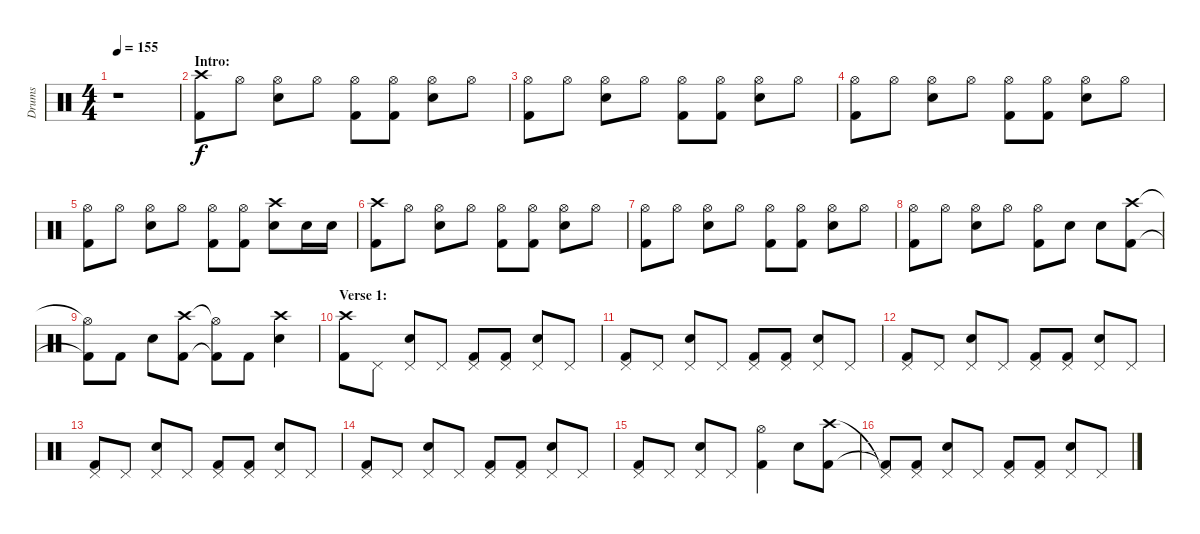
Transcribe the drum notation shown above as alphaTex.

\track ("Drums" "Drums") {instrument percussion}
\staff {score}
\articulation defaults
\ts (4 4)
\tempo 155
\clef neutral
\ks c
r.1{dy f} |
\section ("" "Intro:")
("Crash high (hit)" "Kick (hit) 2").8 "Hi-Hat (open)".8 ("Hi-Hat (open)" "Electric Snare (hit)").8 "Hi-Hat (open)".8 ("Hi-Hat (open)" "Kick (hit) 2").8 ("Hi-Hat (open)" "Kick (hit) 2").8 ("Hi-Hat (open)" "Electric Snare (hit)").8 "Hi-Hat (open)".8 |
("Hi-Hat (open)" "Kick (hit) 2").8 "Hi-Hat (open)".8 ("Hi-Hat (open)" "Electric Snare (hit)").8 "Hi-Hat (open)".8 ("Hi-Hat (open)" "Kick (hit) 2").8 ("Hi-Hat (open)" "Kick (hit) 2").8 ("Hi-Hat (open)" "Electric Snare (hit)").8 "Hi-Hat (open)".8 |
("Hi-Hat (open)" "Kick (hit) 2").8 "Hi-Hat (open)".8 ("Hi-Hat (open)" "Electric Snare (hit)").8 "Hi-Hat (open)".8 ("Hi-Hat (open)" "Kick (hit) 2").8 ("Hi-Hat (open)" "Kick (hit) 2").8 ("Hi-Hat (open)" "Electric Snare (hit)").8 "Hi-Hat (open)".8 |
("Hi-Hat (open)" "Kick (hit) 2").8 "Hi-Hat (open)".8 ("Hi-Hat (open)" "Electric Snare (hit)").8 "Hi-Hat (open)".8 ("Hi-Hat (open)" "Kick (hit) 2").8 ("Hi-Hat (open)" "Kick (hit) 2").8 ("Crash high (hit)" "Electric Snare (hit)").8 "Electric Snare (hit)".16 "Electric Snare (hit)".16 |
("Crash high (hit)" "Kick (hit) 2").8 "Hi-Hat (open)".8 ("Hi-Hat (open)" "Electric Snare (hit)").8 "Hi-Hat (open)".8 ("Hi-Hat (open)" "Kick (hit) 2").8 ("Hi-Hat (open)" "Kick (hit) 2").8 ("Hi-Hat (open)" "Electric Snare (hit)").8 "Hi-Hat (open)".8 |
("Hi-Hat (open)" "Kick (hit) 2").8 "Hi-Hat (open)".8 ("Hi-Hat (open)" "Electric Snare (hit)").8 "Hi-Hat (open)".8 ("Hi-Hat (open)" "Kick (hit) 2").8 ("Hi-Hat (open)" "Kick (hit) 2").8 ("Hi-Hat (open)" "Electric Snare (hit)").8 "Hi-Hat (open)".8 |
("Hi-Hat (open)" "Kick (hit) 2").8 "Hi-Hat (open)".8 ("Hi-Hat (open)" "Electric Snare (hit)").8 "Hi-Hat (open)".8 ("Hi-Hat (open)" "Kick (hit) 2").8 "Electric Snare (hit)".8 "Electric Snare (hit)".8 ("Crash high (hit)" "Kick (hit) 2").8 |
("Hi-Hat (open)"{t} "Kick (hit) 2"{t}).8 "Kick (hit) 2".8 "Electric Snare (hit)".8 ("Crash high (hit)" "Kick (hit) 2").8 ("Hi-Hat (open)"{t} "Kick (hit) 2"{t}).8 "Kick (hit) 2".8 ("Crash high (hit)" "Electric Snare (hit)").4 |
\section ("" "Verse 1:")
("Crash high (hit)" "Kick (hit) 2").8 "Pedal Hi-Hat (hit)".8 ("Pedal Hi-Hat (hit)" "Electric Snare (hit)").8 "Pedal Hi-Hat (hit)".8 ("Pedal Hi-Hat (hit)" "Kick (hit) 2").8 ("Pedal Hi-Hat (hit)" "Kick (hit) 2").8 ("Pedal Hi-Hat (hit)" "Electric Snare (hit)").8 "Pedal Hi-Hat (hit)".8 |
("Pedal Hi-Hat (hit)" "Kick (hit) 2").8 "Pedal Hi-Hat (hit)".8 ("Pedal Hi-Hat (hit)" "Electric Snare (hit)").8 "Pedal Hi-Hat (hit)".8 ("Pedal Hi-Hat (hit)" "Kick (hit) 2").8 ("Pedal Hi-Hat (hit)" "Kick (hit) 2").8 ("Pedal Hi-Hat (hit)" "Electric Snare (hit)").8 "Pedal Hi-Hat (hit)".8 |
("Pedal Hi-Hat (hit)" "Kick (hit) 2").8 "Pedal Hi-Hat (hit)".8 ("Pedal Hi-Hat (hit)" "Electric Snare (hit)").8 "Pedal Hi-Hat (hit)".8 ("Pedal Hi-Hat (hit)" "Kick (hit) 2").8 ("Pedal Hi-Hat (hit)" "Kick (hit) 2").8 ("Pedal Hi-Hat (hit)" "Electric Snare (hit)").8 "Pedal Hi-Hat (hit)".8 |
("Pedal Hi-Hat (hit)" "Kick (hit) 2").8 "Pedal Hi-Hat (hit)".8 ("Pedal Hi-Hat (hit)" "Electric Snare (hit)").8 "Pedal Hi-Hat (hit)".8 ("Pedal Hi-Hat (hit)" "Kick (hit) 2").8 ("Pedal Hi-Hat (hit)" "Kick (hit) 2").8 ("Pedal Hi-Hat (hit)" "Electric Snare (hit)").8 "Pedal Hi-Hat (hit)".8 |
("Pedal Hi-Hat (hit)" "Kick (hit) 2").8 "Pedal Hi-Hat (hit)".8 ("Pedal Hi-Hat (hit)" "Electric Snare (hit)").8 "Pedal Hi-Hat (hit)".8 ("Pedal Hi-Hat (hit)" "Kick (hit) 2").8 ("Pedal Hi-Hat (hit)" "Kick (hit) 2").8 ("Pedal Hi-Hat (hit)" "Electric Snare (hit)").8 "Pedal Hi-Hat (hit)".8 |
("Pedal Hi-Hat (hit)" "Kick (hit) 2").8 "Pedal Hi-Hat (hit)".8 ("Pedal Hi-Hat (hit)" "Electric Snare (hit)").8 "Pedal Hi-Hat (hit)".8 ("Hi-Hat (open)" "Kick (hit) 2").4 "Electric Snare (hit)".8 ("Crash high (hit)" "Kick (hit) 2").8 |
("Pedal Hi-Hat (hit)"{t} "Kick (hit) 2"{t}).8 ("Pedal Hi-Hat (hit)" "Kick (hit) 2").8 ("Pedal Hi-Hat (hit)" "Electric Snare (hit)").8 "Pedal Hi-Hat (hit)".8 ("Pedal Hi-Hat (hit)" "Kick (hit) 2").8 ("Pedal Hi-Hat (hit)" "Kick (hit) 2").8 ("Pedal Hi-Hat (hit)" "Electric Snare (hit)").8 "Pedal Hi-Hat (hit)".8
